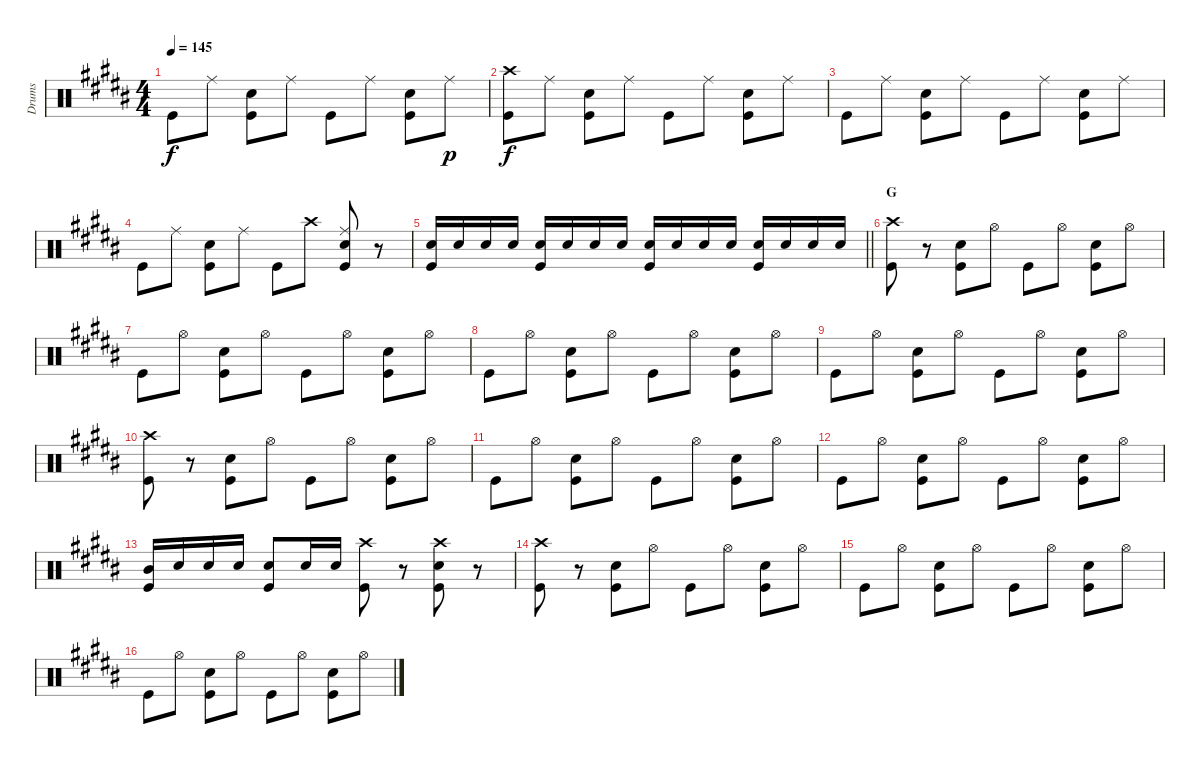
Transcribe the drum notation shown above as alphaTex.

\track ("Drums" "Drums") {instrument percussion}
\staff {score}
\articulation defaults
\ts (4 4)
\tempo 145
\clef neutral
\ks b "Kick (hit)".8{dy f} "Ride (middle)".8
("Snare (hit) 2" "Kick (hit)").8 "Ride (middle)".8 "Kick (hit)".8 "Ride (middle)".8 ("Snare (hit) 2" "Kick (hit)").8 "Ride (middle)".8{dy p} |
("Crash high (hit)" "Kick (hit)").8{dy f} "Ride (middle)".8 ("Snare (hit) 2" "Kick (hit)").8 "Ride (middle)".8 "Kick (hit)".8 "Ride (middle)".8 ("Snare (hit) 2" "Kick (hit)").8 "Ride (middle)".8 |
"Kick (hit)".8 "Ride (middle)".8 ("Snare (hit) 2" "Kick (hit)").8 "Ride (middle)".8 "Kick (hit)".8 "Ride (middle)".8 ("Snare (hit) 2" "Kick (hit)").8 "Ride (middle)".8 |
"Kick (hit)".8 "Ride (middle)".8 ("Snare (hit) 2" "Kick (hit)").8 "Ride (middle)".8 "Kick (hit)".8 "Crash high (hit)".8 ("Ride (middle)" "Snare (hit) 2" "Kick (hit)").8 r.8 |
\barLineRight lightlight
("Snare (hit) 2" "Kick (hit)").16 "Snare (hit) 2".16 "Snare (hit) 2".16 "Snare (hit) 2".16 ("Snare (hit) 2" "Kick (hit)").16 "Snare (hit) 2".16 "Snare (hit) 2".16 "Snare (hit) 2".16 ("Snare (hit) 2" "Kick (hit)").16 "Snare (hit) 2".16 "Snare (hit) 2".16 "Snare (hit) 2".16 ("Snare (hit) 2" "Kick (hit)").16 "Snare (hit) 2".16 "Snare (hit) 2".16 "Snare (hit) 2".16 |
\section ("" "G")
("Crash high (hit)" "Kick (hit)").8 r.8 ("Snare (hit) 2" "Kick (hit)").8 "Hi-Hat (open)".8 "Kick (hit)".8 "Hi-Hat (open)".8 ("Snare (hit) 2" "Kick (hit)").8 "Hi-Hat (open)".8 |
"Kick (hit)".8 "Hi-Hat (open)".8 ("Snare (hit) 2" "Kick (hit)").8 "Hi-Hat (open)".8 "Kick (hit)".8 "Hi-Hat (open)".8 ("Snare (hit) 2" "Kick (hit)").8 "Hi-Hat (open)".8 |
"Kick (hit)".8 "Hi-Hat (open)".8 ("Snare (hit) 2" "Kick (hit)").8 "Hi-Hat (open)".8 "Kick (hit)".8 "Hi-Hat (open)".8 ("Snare (hit) 2" "Kick (hit)").8 "Hi-Hat (open)".8 |
"Kick (hit)".8 "Hi-Hat (open)".8 ("Snare (hit) 2" "Kick (hit)").8 "Hi-Hat (open)".8 "Kick (hit)".8 "Hi-Hat (open)".8 ("Snare (hit) 2" "Kick (hit)").8 "Hi-Hat (open)".8 |
("Crash high (hit)" "Kick (hit)").8 r.8 ("Snare (hit) 2" "Kick (hit)").8 "Hi-Hat (open)".8 "Kick (hit)".8 "Hi-Hat (open)".8 ("Snare (hit) 2" "Kick (hit)").8 "Hi-Hat (open)".8 |
"Kick (hit)".8 "Hi-Hat (open)".8 ("Snare (hit) 2" "Kick (hit)").8 "Hi-Hat (open)".8 "Kick (hit)".8 "Hi-Hat (open)".8 ("Snare (hit) 2" "Kick (hit)").8 "Hi-Hat (open)".8 |
"Kick (hit)".8 "Hi-Hat (open)".8 ("Snare (hit) 2" "Kick (hit)").8 "Hi-Hat (open)".8 "Kick (hit)".8 "Hi-Hat (open)".8 ("Snare (hit) 2" "Kick (hit)").8 "Hi-Hat (open)".8 |
("Mid Tom (hit)" "Kick (hit)").16 "Snare (hit) 2".16 "Snare (hit) 2".16 "Snare (hit) 2".16 ("Snare (hit) 2" "Kick (hit)").8 "Snare (hit) 2".16 "Snare (hit) 2".16 ("Crash high (hit)" "Kick (hit)").8 r.8 ("Crash high (hit)" "Snare (hit) 2" "Kick (hit)").8 r.8 |
("Crash high (hit)" "Kick (hit)").8 r.8 ("Snare (hit) 2" "Kick (hit)").8 "Hi-Hat (open)".8 "Kick (hit)".8 "Hi-Hat (open)".8 ("Snare (hit) 2" "Kick (hit)").8 "Hi-Hat (open)".8 |
"Kick (hit)".8 "Hi-Hat (open)".8 ("Snare (hit) 2" "Kick (hit)").8 "Hi-Hat (open)".8 "Kick (hit)".8 "Hi-Hat (open)".8 ("Snare (hit) 2" "Kick (hit)").8 "Hi-Hat (open)".8 |
"Kick (hit)".8 "Hi-Hat (open)".8 ("Snare (hit) 2" "Kick (hit)").8 "Hi-Hat (open)".8 "Kick (hit)".8 "Hi-Hat (open)".8 ("Snare (hit) 2" "Kick (hit)").8 "Hi-Hat (open)".8
